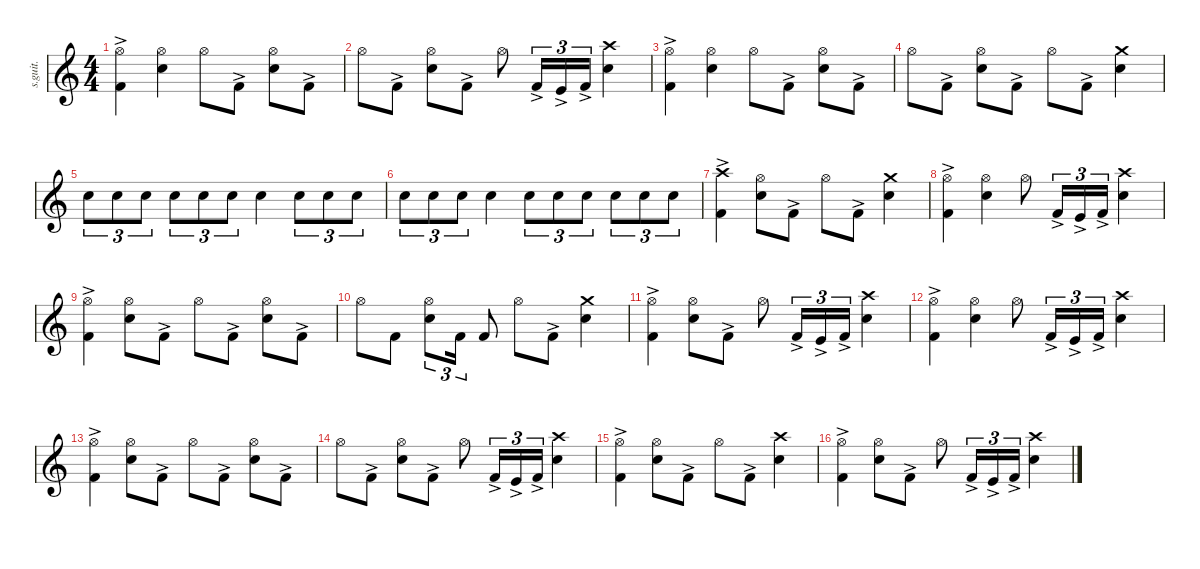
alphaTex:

\defaultSystemsLayout 4
\hideDynamics
\bracketExtendMode nobrackets
\track ("Lars Ulrich - Drums" "s.guit.") {instrument percussion}
\staff {score}
\articulation defaults
\ts (4 4)
\tempo (220 hide)
\clef g2
\ks c
("Hi-Hat (open)" "Kick (hit) 2"{ac}).4{lyrics (0 "") lyrics (1 "") lyrics (2 "") lyrics (3 "") lyrics (4 "") dy f} ("Hi-Hat (open)" "Snare (hit) 2").4{lyrics (0 "") lyrics (1 "") lyrics (2 "") lyrics (3 "") lyrics (4 "")} "Hi-Hat (open)".8{lyrics (0 "") lyrics (1 "") lyrics (2 "") lyrics (3 "") lyrics (4 "")} "Kick (hit) 2"{ac}.8{lyrics (0 "") lyrics (1 "") lyrics (2 "") lyrics (3 "") lyrics (4 "") dy mp} ("Hi-Hat (open)" "Snare (hit) 2").8{lyrics (0 "") lyrics (1 "") lyrics (2 "") lyrics (3 "") lyrics (4 "") dy f} "Kick (hit) 2"{ac}.8{lyrics (0 "") lyrics (1 "") lyrics (2 "") lyrics (3 "") lyrics (4 "") dy mp} |
"Hi-Hat (open)".8{lyrics (0 "") lyrics (1 "") lyrics (2 "") lyrics (3 "") lyrics (4 "") dy f} "Kick (hit) 2"{ac}.8{lyrics (0 "") lyrics (1 "") lyrics (2 "") lyrics (3 "") lyrics (4 "") dy mp} ("Hi-Hat (open)" "Snare (hit) 2").8{lyrics (0 "") lyrics (1 "") lyrics (2 "") lyrics (3 "") lyrics (4 "") dy f} "Kick (hit) 2"{ac}.8{lyrics (0 "") lyrics (1 "") lyrics (2 "") lyrics (3 "") lyrics (4 "") dy mp} "Hi-Hat (open)".8{lyrics (0 "") lyrics (1 "") lyrics (2 "") lyrics (3 "") lyrics (4 "") dy f} "Kick (hit) 2"{ac}.16{tu (3 2) lyrics (0 "") lyrics (1 "") lyrics (2 "") lyrics (3 "") lyrics (4 "") dy mp} "Kick (hit)"{ac}.16{tu (3 2) lyrics (0 "") lyrics (1 "") lyrics (2 "") lyrics (3 "") lyrics (4 "") dy mf} "Kick (hit) 2"{ac}.16{tu (3 2) lyrics (0 "") lyrics (1 "") lyrics (2 "") lyrics (3 "") lyrics (4 "") dy mp} ("Crash high (hit)" "Snare (hit) 2").4{lyrics (0 "") lyrics (1 "") lyrics (2 "") lyrics (3 "") lyrics (4 "") dy f} |
("Hi-Hat (open)" "Kick (hit) 2"{ac}).4{lyrics (0 "") lyrics (1 "") lyrics (2 "") lyrics (3 "") lyrics (4 "")} ("Hi-Hat (open)" "Snare (hit) 2").4{lyrics (0 "") lyrics (1 "") lyrics (2 "") lyrics (3 "") lyrics (4 "")} "Hi-Hat (open)".8{lyrics (0 "") lyrics (1 "") lyrics (2 "") lyrics (3 "") lyrics (4 "")} "Kick (hit) 2"{ac}.8{lyrics (0 "") lyrics (1 "") lyrics (2 "") lyrics (3 "") lyrics (4 "") dy mp} ("Hi-Hat (open)" "Snare (hit) 2").8{lyrics (0 "") lyrics (1 "") lyrics (2 "") lyrics (3 "") lyrics (4 "") dy f} "Kick (hit) 2"{ac}.8{lyrics (0 "") lyrics (1 "") lyrics (2 "") lyrics (3 "") lyrics (4 "") dy mp} |
"Hi-Hat (open)".8{lyrics (0 "") lyrics (1 "") lyrics (2 "") lyrics (3 "") lyrics (4 "") dy f} "Kick (hit) 2"{ac}.8{lyrics (0 "") lyrics (1 "") lyrics (2 "") lyrics (3 "") lyrics (4 "") dy mp} ("Hi-Hat (open)" "Snare (hit) 2").8{lyrics (0 "") lyrics (1 "") lyrics (2 "") lyrics (3 "") lyrics (4 "") dy f} "Kick (hit) 2"{ac}.8{lyrics (0 "") lyrics (1 "") lyrics (2 "") lyrics (3 "") lyrics (4 "") dy mp} "Hi-Hat (open)".8{lyrics (0 "") lyrics (1 "") lyrics (2 "") lyrics (3 "") lyrics (4 "") dy f} "Kick (hit) 2"{ac}.8{lyrics (0 "") lyrics (1 "") lyrics (2 "") lyrics (3 "") lyrics (4 "") dy mp} ("Crash medium (hit)" "Snare (hit) 2").4{lyrics (0 "") lyrics (1 "") lyrics (2 "") lyrics (3 "") lyrics (4 "") dy f} |
"Snare (hit) 2".8{tu (3 2) lyrics (0 "") lyrics (1 "") lyrics (2 "") lyrics (3 "") lyrics (4 "")} "Snare (hit) 2".8{tu (3 2) lyrics (0 "") lyrics (1 "") lyrics (2 "") lyrics (3 "") lyrics (4 "")} "Snare (hit) 2".8{tu (3 2) lyrics (0 "") lyrics (1 "") lyrics (2 "") lyrics (3 "") lyrics (4 "")} "Snare (hit) 2".8{tu (3 2) lyrics (0 "") lyrics (1 "") lyrics (2 "") lyrics (3 "") lyrics (4 "")} "Snare (hit) 2".8{tu (3 2) lyrics (0 "") lyrics (1 "") lyrics (2 "") lyrics (3 "") lyrics (4 "")} "Snare (hit) 2".8{tu (3 2) lyrics (0 "") lyrics (1 "") lyrics (2 "") lyrics (3 "") lyrics (4 "")} "Snare (hit) 2".4{lyrics (0 "") lyrics (1 "") lyrics (2 "") lyrics (3 "") lyrics (4 "")} "Snare (hit) 2".8{tu (3 2) lyrics (0 "") lyrics (1 "") lyrics (2 "") lyrics (3 "") lyrics (4 "")} "Snare (hit) 2".8{tu (3 2) lyrics (0 "") lyrics (1 "") lyrics (2 "") lyrics (3 "") lyrics (4 "")} "Snare (hit) 2".8{tu (3 2) lyrics (0 "") lyrics (1 "") lyrics (2 "") lyrics (3 "") lyrics (4 "")} |
"Snare (hit) 2".8{tu (3 2) lyrics (0 "") lyrics (1 "") lyrics (2 "") lyrics (3 "") lyrics (4 "")} "Snare (hit) 2".8{tu (3 2) lyrics (0 "") lyrics (1 "") lyrics (2 "") lyrics (3 "") lyrics (4 "")} "Snare (hit) 2".8{tu (3 2) lyrics (0 "") lyrics (1 "") lyrics (2 "") lyrics (3 "") lyrics (4 "")} "Snare (hit) 2".4{lyrics (0 "") lyrics (1 "") lyrics (2 "") lyrics (3 "") lyrics (4 "")} "Snare (hit) 2".8{tu (3 2) lyrics (0 "") lyrics (1 "") lyrics (2 "") lyrics (3 "") lyrics (4 "")} "Snare (hit) 2".8{tu (3 2) lyrics (0 "") lyrics (1 "") lyrics (2 "") lyrics (3 "") lyrics (4 "")} "Snare (hit) 2".8{tu (3 2) lyrics (0 "") lyrics (1 "") lyrics (2 "") lyrics (3 "") lyrics (4 "")} "Snare (hit) 2".8{tu (3 2) lyrics (0 "") lyrics (1 "") lyrics (2 "") lyrics (3 "") lyrics (4 "")} "Snare (hit) 2".8{tu (3 2) lyrics (0 "") lyrics (1 "") lyrics (2 "") lyrics (3 "") lyrics (4 "")} "Snare (hit) 2".8{tu (3 2) lyrics (0 "") lyrics (1 "") lyrics (2 "") lyrics (3 "") lyrics (4 "")} |
("Crash high (hit)" "Kick (hit) 2"{ac}).4{lyrics (0 "") lyrics (1 "") lyrics (2 "") lyrics (3 "") lyrics (4 "")} ("Hi-Hat (open)" "Snare (hit) 2").8{lyrics (0 "") lyrics (1 "") lyrics (2 "") lyrics (3 "") lyrics (4 "")} "Kick (hit) 2"{ac}.8{lyrics (0 "") lyrics (1 "") lyrics (2 "") lyrics (3 "") lyrics (4 "") dy mp} "Hi-Hat (open)".8{lyrics (0 "") lyrics (1 "") lyrics (2 "") lyrics (3 "") lyrics (4 "") dy f} "Kick (hit) 2"{ac}.8{lyrics (0 "") lyrics (1 "") lyrics (2 "") lyrics (3 "") lyrics (4 "") dy mp} ("Snare (hit) 2" "Crash medium (hit)").4{lyrics (0 "") lyrics (1 "") lyrics (2 "") lyrics (3 "") lyrics (4 "") dy f} |
("Hi-Hat (open)" "Kick (hit) 2"{ac}).4{lyrics (0 "") lyrics (1 "") lyrics (2 "") lyrics (3 "") lyrics (4 "")} ("Snare (hit) 2" "Hi-Hat (open)").4{lyrics (0 "") lyrics (1 "") lyrics (2 "") lyrics (3 "") lyrics (4 "")} "Hi-Hat (open)".8{lyrics (0 "") lyrics (1 "") lyrics (2 "") lyrics (3 "") lyrics (4 "")} "Kick (hit) 2"{ac}.16{tu (3 2) lyrics (0 "") lyrics (1 "") lyrics (2 "") lyrics (3 "") lyrics (4 "") dy mp} "Kick (hit)"{ac}.16{tu (3 2) lyrics (0 "") lyrics (1 "") lyrics (2 "") lyrics (3 "") lyrics (4 "") dy mf} "Kick (hit) 2"{ac}.16{tu (3 2) lyrics (0 "") lyrics (1 "") lyrics (2 "") lyrics (3 "") lyrics (4 "") dy mp} ("Crash high (hit)" "Snare (hit) 2").4{lyrics (0 "") lyrics (1 "") lyrics (2 "") lyrics (3 "") lyrics (4 "") dy f} |
("Hi-Hat (open)" "Kick (hit) 2"{ac}).4{lyrics (0 "") lyrics (1 "") lyrics (2 "") lyrics (3 "") lyrics (4 "")} ("Hi-Hat (open)" "Snare (hit) 2").8{lyrics (0 "") lyrics (1 "") lyrics (2 "") lyrics (3 "") lyrics (4 "")} "Kick (hit) 2"{ac}.8{lyrics (0 "") lyrics (1 "") lyrics (2 "") lyrics (3 "") lyrics (4 "") dy mp} "Hi-Hat (open)".8{lyrics (0 "") lyrics (1 "") lyrics (2 "") lyrics (3 "") lyrics (4 "") dy f} "Kick (hit) 2"{ac}.8{lyrics (0 "") lyrics (1 "") lyrics (2 "") lyrics (3 "") lyrics (4 "") dy mp} ("Hi-Hat (open)" "Snare (hit) 2").8{lyrics (0 "") lyrics (1 "") lyrics (2 "") lyrics (3 "") lyrics (4 "") dy f} "Kick (hit) 2"{ac}.8{lyrics (0 "") lyrics (1 "") lyrics (2 "") lyrics (3 "") lyrics (4 "") dy mp} |
"Hi-Hat (open)".8{lyrics (0 "") lyrics (1 "") lyrics (2 "") lyrics (3 "") lyrics (4 "") dy f} "Kick (hit) 2".8{lyrics (0 "") lyrics (1 "") lyrics (2 "") lyrics (3 "") lyrics (4 "")} ("Hi-Hat (open)" "Snare (hit) 2").8{tu (3 2) lyrics (0 "") lyrics (1 "") lyrics (2 "") lyrics (3 "") lyrics (4 "")} "Kick (hit) 2".16{tu (3 2) lyrics (0 "") lyrics (1 "") lyrics (2 "") lyrics (3 "") lyrics (4 "")} "Kick (hit) 2".8{lyrics (0 "") lyrics (1 "") lyrics (2 "") lyrics (3 "") lyrics (4 "")} "Hi-Hat (open)".8{lyrics (0 "") lyrics (1 "") lyrics (2 "") lyrics (3 "") lyrics (4 "")} "Kick (hit) 2"{ac}.8{lyrics (0 "") lyrics (1 "") lyrics (2 "") lyrics (3 "") lyrics (4 "") dy mp} ("Crash medium (hit)" "Snare (hit) 2").4{lyrics (0 "") lyrics (1 "") lyrics (2 "") lyrics (3 "") lyrics (4 "") dy f} |
("Hi-Hat (open)" "Kick (hit) 2"{ac}).4{lyrics (0 "") lyrics (1 "") lyrics (2 "") lyrics (3 "") lyrics (4 "")} ("Hi-Hat (open)" "Snare (hit) 2").8{lyrics (0 "") lyrics (1 "") lyrics (2 "") lyrics (3 "") lyrics (4 "")} "Kick (hit) 2"{ac}.8{lyrics (0 "") lyrics (1 "") lyrics (2 "") lyrics (3 "") lyrics (4 "") dy mp} "Hi-Hat (open)".8{lyrics (0 "") lyrics (1 "") lyrics (2 "") lyrics (3 "") lyrics (4 "") dy f} "Kick (hit) 2"{ac}.16{tu (3 2) lyrics (0 "") lyrics (1 "") lyrics (2 "") lyrics (3 "") lyrics (4 "") dy mp} "Kick (hit)"{ac}.16{tu (3 2) lyrics (0 "") lyrics (1 "") lyrics (2 "") lyrics (3 "") lyrics (4 "") dy mf} "Kick (hit) 2"{ac}.16{tu (3 2) lyrics (0 "") lyrics (1 "") lyrics (2 "") lyrics (3 "") lyrics (4 "") dy mp} ("Snare (hit) 2" "Crash high (hit)").4{lyrics (0 "") lyrics (1 "") lyrics (2 "") lyrics (3 "") lyrics (4 "") dy f} |
("Hi-Hat (open)" "Kick (hit) 2"{ac}).4{lyrics (0 "") lyrics (1 "") lyrics (2 "") lyrics (3 "") lyrics (4 "")} ("Hi-Hat (open)" "Snare (hit) 2").4{lyrics (0 "") lyrics (1 "") lyrics (2 "") lyrics (3 "") lyrics (4 "")} "Hi-Hat (open)".8{lyrics (0 "") lyrics (1 "") lyrics (2 "") lyrics (3 "") lyrics (4 "")} "Kick (hit) 2"{ac}.16{tu (3 2) lyrics (0 "") lyrics (1 "") lyrics (2 "") lyrics (3 "") lyrics (4 "") dy mp} "Kick (hit)"{ac}.16{tu (3 2) lyrics (0 "") lyrics (1 "") lyrics (2 "") lyrics (3 "") lyrics (4 "") dy mf} "Kick (hit) 2"{ac}.16{tu (3 2) lyrics (0 "") lyrics (1 "") lyrics (2 "") lyrics (3 "") lyrics (4 "") dy mp} ("Crash high (hit)" "Snare (hit) 2").4{lyrics (0 "") lyrics (1 "") lyrics (2 "") lyrics (3 "") lyrics (4 "") dy f} |
("Hi-Hat (open)" "Kick (hit) 2"{ac}).4{lyrics (0 "") lyrics (1 "") lyrics (2 "") lyrics (3 "") lyrics (4 "")} ("Hi-Hat (open)" "Snare (hit) 2").8{lyrics (0 "") lyrics (1 "") lyrics (2 "") lyrics (3 "") lyrics (4 "")} "Kick (hit) 2"{ac}.8{lyrics (0 "") lyrics (1 "") lyrics (2 "") lyrics (3 "") lyrics (4 "") dy mp} "Hi-Hat (open)".8{lyrics (0 "") lyrics (1 "") lyrics (2 "") lyrics (3 "") lyrics (4 "") dy f} "Kick (hit) 2"{ac}.8{lyrics (0 "") lyrics (1 "") lyrics (2 "") lyrics (3 "") lyrics (4 "") dy mp} ("Hi-Hat (open)" "Snare (hit) 2").8{lyrics (0 "") lyrics (1 "") lyrics (2 "") lyrics (3 "") lyrics (4 "") dy f} "Kick (hit) 2"{ac}.8{lyrics (0 "") lyrics (1 "") lyrics (2 "") lyrics (3 "") lyrics (4 "") dy mp} |
"Hi-Hat (open)".8{lyrics (0 "") lyrics (1 "") lyrics (2 "") lyrics (3 "") lyrics (4 "") dy f} "Kick (hit) 2"{ac}.8{lyrics (0 "") lyrics (1 "") lyrics (2 "") lyrics (3 "") lyrics (4 "") dy mp} ("Hi-Hat (open)" "Snare (hit) 2").8{lyrics (0 "") lyrics (1 "") lyrics (2 "") lyrics (3 "") lyrics (4 "") dy f} "Kick (hit) 2"{ac}.8{lyrics (0 "") lyrics (1 "") lyrics (2 "") lyrics (3 "") lyrics (4 "") dy mp} "Hi-Hat (open)".8{lyrics (0 "") lyrics (1 "") lyrics (2 "") lyrics (3 "") lyrics (4 "") dy f} "Kick (hit) 2"{ac}.16{tu (3 2) lyrics (0 "") lyrics (1 "") lyrics (2 "") lyrics (3 "") lyrics (4 "") dy mp} "Kick (hit)"{ac}.16{tu (3 2) lyrics (0 "") lyrics (1 "") lyrics (2 "") lyrics (3 "") lyrics (4 "") dy mf} "Kick (hit) 2"{ac}.16{tu (3 2) lyrics (0 "") lyrics (1 "") lyrics (2 "") lyrics (3 "") lyrics (4 "") dy mp} ("Snare (hit) 2" "Crash high (hit)").4{lyrics (0 "") lyrics (1 "") lyrics (2 "") lyrics (3 "") lyrics (4 "") dy f} |
("Hi-Hat (open)" "Kick (hit) 2"{ac}).4{lyrics (0 "") lyrics (1 "") lyrics (2 "") lyrics (3 "") lyrics (4 "")} ("Hi-Hat (open)" "Snare (hit) 2").8{lyrics (0 "") lyrics (1 "") lyrics (2 "") lyrics (3 "") lyrics (4 "")} "Kick (hit) 2"{ac}.8{lyrics (0 "") lyrics (1 "") lyrics (2 "") lyrics (3 "") lyrics (4 "") dy mp} "Hi-Hat (open)".8{lyrics (0 "") lyrics (1 "") lyrics (2 "") lyrics (3 "") lyrics (4 "") dy f} "Kick (hit) 2"{ac}.8{lyrics (0 "") lyrics (1 "") lyrics (2 "") lyrics (3 "") lyrics (4 "") dy mp} ("Crash high (hit)" "Snare (hit) 2").4{lyrics (0 "") lyrics (1 "") lyrics (2 "") lyrics (3 "") lyrics (4 "") dy f} |
("Hi-Hat (open)" "Kick (hit) 2"{ac}).4{lyrics (0 "") lyrics (1 "") lyrics (2 "") lyrics (3 "") lyrics (4 "")} ("Hi-Hat (open)" "Snare (hit) 2").8{lyrics (0 "") lyrics (1 "") lyrics (2 "") lyrics (3 "") lyrics (4 "")} "Kick (hit) 2"{ac}.8{lyrics (0 "") lyrics (1 "") lyrics (2 "") lyrics (3 "") lyrics (4 "") dy mp} "Hi-Hat (open)".8{lyrics (0 "") lyrics (1 "") lyrics (2 "") lyrics (3 "") lyrics (4 "") dy f} "Kick (hit) 2"{ac}.16{tu (3 2) lyrics (0 "") lyrics (1 "") lyrics (2 "") lyrics (3 "") lyrics (4 "") dy mp} "Kick (hit)"{ac}.16{tu (3 2) lyrics (0 "") lyrics (1 "") lyrics (2 "") lyrics (3 "") lyrics (4 "") dy mf} "Kick (hit) 2"{ac}.16{tu (3 2) lyrics (0 "") lyrics (1 "") lyrics (2 "") lyrics (3 "") lyrics (4 "") dy mp} ("Crash high (hit)" "Snare (hit) 2").4{lyrics (0 "") lyrics (1 "") lyrics (2 "") lyrics (3 "") lyrics (4 "") dy f}
